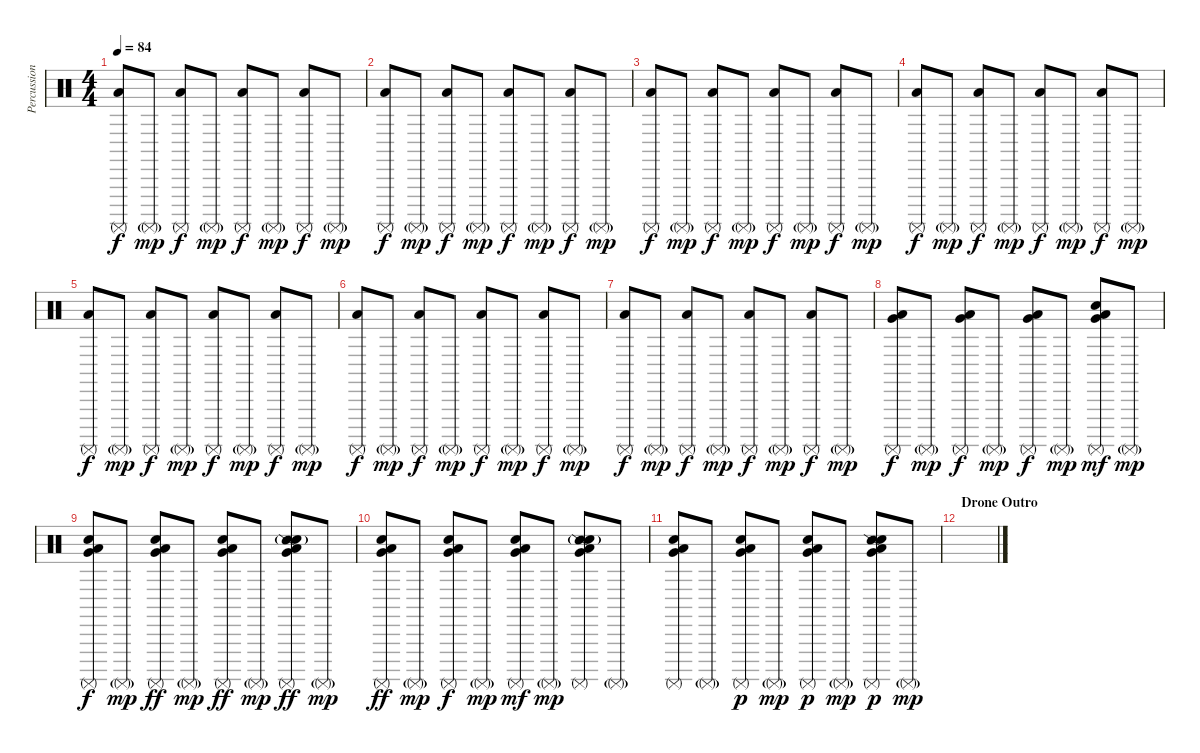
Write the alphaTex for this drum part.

\track ("Percussion" "Percussion") {instrument percussion}
\staff {score}
\articulation defaults
\ts (4 4)
\tempo 84
\clef neutral
\ks c
("Low Floor Tom (hit)" "Surdo (mute)").8{dy f volume 8} "Surdo (mute)"{g}.8{dy mp} ("Low Floor Tom (hit)" "Surdo (mute)").8{dy f} "Surdo (mute)"{g}.8{dy mp} ("Low Floor Tom (hit)" "Surdo (mute)").8{dy f} "Surdo (mute)"{g}.8{dy mp} ("Low Floor Tom (hit)" "Surdo (mute)").8{dy f} "Surdo (mute)"{g}.8{dy mp} |
("Low Floor Tom (hit)" "Surdo (mute)").8{dy f volume 8} "Surdo (mute)"{g}.8{dy mp} ("Low Floor Tom (hit)" "Surdo (mute)").8{dy f} "Surdo (mute)"{g}.8{dy mp} ("Low Floor Tom (hit)" "Surdo (mute)").8{dy f} "Surdo (mute)"{g}.8{dy mp} ("Low Floor Tom (hit)" "Surdo (mute)").8{dy f} "Surdo (mute)"{g}.8{dy mp} |
("Low Floor Tom (hit)" "Surdo (mute)").8{dy f volume 8} "Surdo (mute)"{g}.8{dy mp} ("Low Floor Tom (hit)" "Surdo (mute)").8{dy f} "Surdo (mute)"{g}.8{dy mp} ("Low Floor Tom (hit)" "Surdo (mute)").8{dy f} "Surdo (mute)"{g}.8{dy mp} ("Low Floor Tom (hit)" "Surdo (mute)").8{dy f} "Surdo (mute)"{g}.8{dy mp} |
("Low Floor Tom (hit)" "Surdo (mute)").8{dy f} "Surdo (mute)"{g}.8{dy mp} ("Low Floor Tom (hit)" "Surdo (mute)").8{dy f} "Surdo (mute)"{g}.8{dy mp} ("Low Floor Tom (hit)" "Surdo (mute)").8{dy f} "Surdo (mute)"{g}.8{dy mp} ("Low Floor Tom (hit)" "Surdo (mute)").8{dy f} "Surdo (mute)"{g}.8{dy mp} |
("Low Floor Tom (hit)" "Surdo (mute)").8{dy f} "Surdo (mute)"{g}.8{dy mp} ("Low Floor Tom (hit)" "Surdo (mute)").8{dy f} "Surdo (mute)"{g}.8{dy mp} ("Low Floor Tom (hit)" "Surdo (mute)").8{dy f} "Surdo (mute)"{g}.8{dy mp} ("Low Floor Tom (hit)" "Surdo (mute)").8{dy f} "Surdo (mute)"{g}.8{dy mp} |
("Low Floor Tom (hit)" "Surdo (mute)").8{dy f} "Surdo (mute)"{g}.8{dy mp} ("Low Floor Tom (hit)" "Surdo (mute)").8{dy f} "Surdo (mute)"{g}.8{dy mp} ("Low Floor Tom (hit)" "Surdo (mute)").8{dy f} "Surdo (mute)"{g}.8{dy mp} ("Low Floor Tom (hit)" "Surdo (mute)").8{dy f} "Surdo (mute)"{g}.8{dy mp} |
("Low Floor Tom (hit)" "Surdo (mute)").8{dy f volume 6} "Surdo (mute)"{g}.8{dy mp} ("Low Floor Tom (hit)" "Surdo (mute)").8{dy f} "Surdo (mute)"{g}.8{dy mp} ("Low Floor Tom (hit)" "Surdo (mute)").8{dy f} "Surdo (mute)"{g}.8{dy mp} ("Low Floor Tom (hit)" "Surdo (mute)").8{dy f} "Surdo (mute)"{g}.8{dy mp} |
("Very Low Tom (hit)" "Low Floor Tom (hit)" "Surdo (mute)").8{dy f} "Surdo (mute)"{g}.8{dy mp} ("Very Low Tom (hit)" "Low Floor Tom (hit)" "Surdo (mute)").8{dy f} "Surdo (mute)"{g}.8{dy mp} ("Very Low Tom (hit)" "Low Floor Tom (hit)" "Surdo (mute)").8{dy f} "Surdo (mute)"{g}.8{dy mp} ("Very Low Tom (hit)" "Low Floor Tom (hit)" "Electric Snare (hit)" "Surdo (mute)").8{dy mf} "Surdo (mute)"{g}.8{dy mp} |
("Very Low Tom (hit)" "Low Floor Tom (hit)" "Electric Snare (hit)" "Surdo (mute)").8{dy f volume 10} "Surdo (mute)"{g}.8{dy mp} ("Very Low Tom (hit)" "Low Floor Tom (hit)" "Electric Snare (hit)" "Surdo (mute)").8{dy ff} "Surdo (mute)"{g}.8{dy mp} ("Very Low Tom (hit)" "Low Floor Tom (hit)" "Electric Snare (hit)" "Surdo (mute)").8{dy ff} "Surdo (mute)"{g}.8{dy mp} ("Snare (side stick) 2"{g} "Very Low Tom (hit)" "Low Floor Tom (hit)" "Electric Snare (hit)" "Surdo (mute)").8{dy ff} "Surdo (mute)"{g}.8{dy mp} |
("Very Low Tom (hit)" "Low Floor Tom (hit)" "Electric Snare (hit)" "Surdo (mute)").8{dy ff} "Surdo (mute)"{g}.8{dy mp} ("Very Low Tom (hit)" "Low Floor Tom (hit)" "Electric Snare (hit)" "Surdo (mute)").8{dy f} "Surdo (mute)"{g}.8{dy mp} ("Very Low Tom (hit)" "Low Floor Tom (hit)" "Electric Snare (hit)" "Surdo (mute)").8{dy mf} "Surdo (mute)"{g}.8{dy mp} ("Snare (side stick) 2"{g} "Very Low Tom (hit)" "Low Floor Tom (hit)" "Electric Snare (hit)" "Surdo (mute)").8 "Surdo (mute)"{g}.8 |
("Very Low Tom (hit)" "Low Floor Tom (hit)" "Electric Snare (hit)" "Surdo (mute)").8 "Surdo (mute)"{g}.8 ("Very Low Tom (hit)" "Low Floor Tom (hit)" "Electric Snare (hit)" "Surdo (mute)").8{dy p} "Surdo (mute)"{g}.8{dy mp} ("Very Low Tom (hit)" "Low Floor Tom (hit)" "Electric Snare (hit)" "Surdo (mute)").8{dy p} "Surdo (mute)"{g}.8{dy mp} ("Snare (side stick) 2" "Very Low Tom (hit)" "Low Floor Tom (hit)" "Electric Snare (hit)" "Surdo (mute)").8{dy p} "Surdo (mute)"{g}.8{dy mp} |
\section ("" "Drone Outro")
